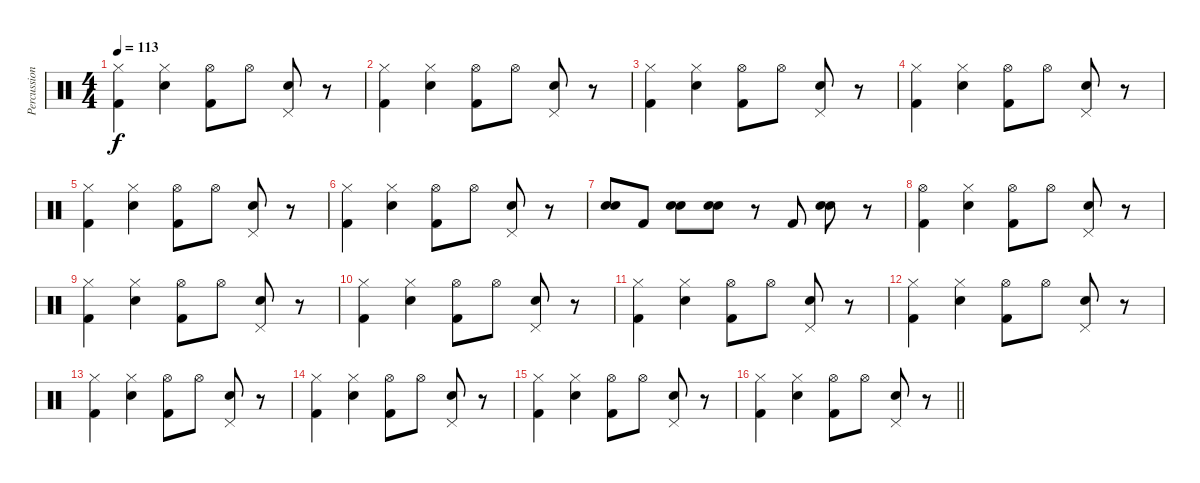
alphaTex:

\track ("Percussion" "Percussion") {instrument percussion bank 3}
\staff {score}
\articulation defaults
\ts (4 4)
\tempo 113
\clef neutral
\ks c
("Hi-Hat (closed)" "Kick (hit) 2").4{dy f} ("Hi-Hat (closed)" "Snare (hit) 2").4 ("Hi-Hat (open)" "Kick (hit) 2").8 "Hi-Hat (open)".8 ("Pedal Hi-Hat (hit)" "Snare (hit) 2").8 r.8 |
("Hi-Hat (closed)" "Kick (hit) 2").4 ("Hi-Hat (closed)" "Snare (hit) 2").4 ("Hi-Hat (open)" "Kick (hit) 2").8 "Hi-Hat (open)".8 ("Pedal Hi-Hat (hit)" "Snare (hit) 2").8 r.8 |
("Hi-Hat (closed)" "Kick (hit) 2").4 ("Hi-Hat (closed)" "Snare (hit) 2").4 ("Hi-Hat (open)" "Kick (hit) 2").8 "Hi-Hat (open)".8 ("Pedal Hi-Hat (hit)" "Snare (hit) 2").8 r.8 |
("Hi-Hat (closed)" "Kick (hit) 2").4 ("Hi-Hat (closed)" "Snare (hit) 2").4 ("Hi-Hat (open)" "Kick (hit) 2").8 "Hi-Hat (open)".8 ("Pedal Hi-Hat (hit)" "Snare (hit) 2").8 r.8 |
("Hi-Hat (closed)" "Kick (hit) 2").4 ("Hi-Hat (closed)" "Snare (hit) 2").4 ("Hi-Hat (open)" "Kick (hit) 2").8 "Hi-Hat (open)".8 ("Pedal Hi-Hat (hit)" "Snare (hit) 2").8 r.8 |
("Hi-Hat (closed)" "Kick (hit) 2").4 ("Hi-Hat (closed)" "Snare (hit) 2").4 ("Hi-Hat (open)" "Kick (hit) 2").8 "Hi-Hat (open)".8 ("Pedal Hi-Hat (hit)" "Snare (hit) 2").8 r.8 |
("Snare (hit) 2" "Snare (hit) 2").8 "Kick (hit) 2".8 ("Snare (hit) 2" "Snare (hit) 2").8 ("Snare (hit) 2" "Snare (hit) 2").8 r.8 "Kick (hit) 2".8 ("Snare (hit) 2" "Snare (hit) 2").8 r.8 |
("Hi-Hat (open)" "Kick (hit) 2").4 ("Hi-Hat (closed)" "Snare (hit) 2").4 ("Hi-Hat (open)" "Kick (hit) 2").8 "Hi-Hat (open)".8 ("Pedal Hi-Hat (hit)" "Snare (hit) 2").8 r.8 |
("Hi-Hat (closed)" "Kick (hit) 2").4 ("Hi-Hat (closed)" "Snare (hit) 2").4 ("Hi-Hat (open)" "Kick (hit) 2").8 "Hi-Hat (open)".8 ("Pedal Hi-Hat (hit)" "Snare (hit) 2").8 r.8 |
("Hi-Hat (closed)" "Kick (hit) 2").4 ("Hi-Hat (closed)" "Snare (hit) 2").4 ("Hi-Hat (open)" "Kick (hit) 2").8 "Hi-Hat (open)".8 ("Pedal Hi-Hat (hit)" "Snare (hit) 2").8 r.8 |
("Hi-Hat (closed)" "Kick (hit) 2").4 ("Hi-Hat (closed)" "Snare (hit) 2").4 ("Hi-Hat (open)" "Kick (hit) 2").8 "Hi-Hat (open)".8 ("Pedal Hi-Hat (hit)" "Snare (hit) 2").8 r.8 |
("Hi-Hat (closed)" "Kick (hit) 2").4 ("Hi-Hat (closed)" "Snare (hit) 2").4 ("Hi-Hat (open)" "Kick (hit) 2").8 "Hi-Hat (open)".8 ("Pedal Hi-Hat (hit)" "Snare (hit) 2").8 r.8 |
("Hi-Hat (closed)" "Kick (hit) 2").4 ("Hi-Hat (closed)" "Snare (hit) 2").4 ("Hi-Hat (open)" "Kick (hit) 2").8 "Hi-Hat (open)".8 ("Pedal Hi-Hat (hit)" "Snare (hit) 2").8 r.8 |
("Hi-Hat (closed)" "Kick (hit) 2").4 ("Hi-Hat (closed)" "Snare (hit) 2").4 ("Hi-Hat (open)" "Kick (hit) 2").8 "Hi-Hat (open)".8 ("Pedal Hi-Hat (hit)" "Snare (hit) 2").8 r.8 |
("Hi-Hat (closed)" "Kick (hit) 2").4 ("Hi-Hat (closed)" "Snare (hit) 2").4 ("Hi-Hat (open)" "Kick (hit) 2").8 "Hi-Hat (open)".8 ("Pedal Hi-Hat (hit)" "Snare (hit) 2").8 r.8 |
\barLineRight lightlight
("Hi-Hat (closed)" "Kick (hit) 2").4 ("Hi-Hat (closed)" "Snare (hit) 2").4 ("Hi-Hat (open)" "Kick (hit) 2").8 "Hi-Hat (open)".8 ("Pedal Hi-Hat (hit)" "Snare (hit) 2").8 r.8
